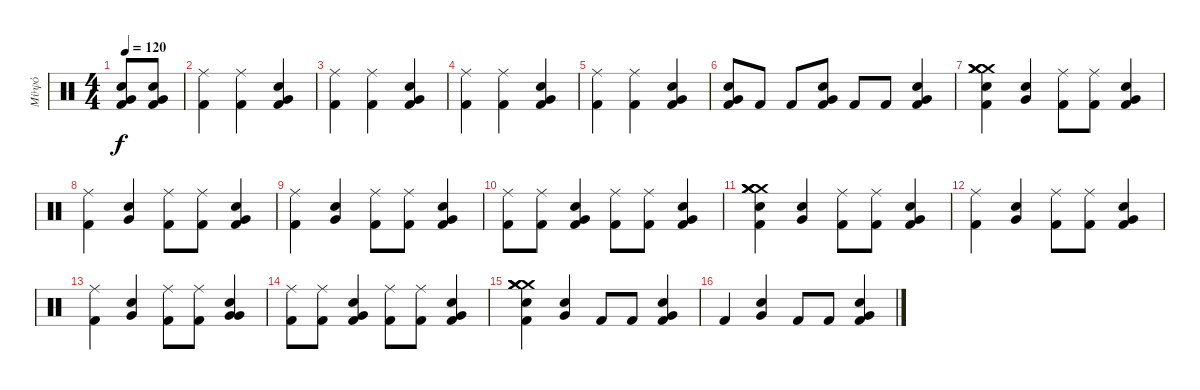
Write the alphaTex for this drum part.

\track ("Μϋψό" "Μϋψό") {instrument percussion}
\staff {score}
\articulation defaults
\ts (4 4)
\tempo 120
\clef neutral
\ks c
("Electric Snare (hit)" "Kick (hit) 2" "Very Low Tom (hit)").8{dy f} ("Electric Snare (hit)" "Kick (hit) 2" "Very Low Tom (hit)").8 |
("Kick (hit) 2" "Ride (middle)").4 ("Kick (hit) 2" "Ride (middle)").4 ("Electric Snare (hit)" "Kick (hit) 2" "Very Low Tom (hit)").4 |
("Kick (hit) 2" "Ride (middle)").4 ("Kick (hit) 2" "Ride (middle)").4 ("Electric Snare (hit)" "Kick (hit) 2" "Very Low Tom (hit)").4 |
("Kick (hit) 2" "Ride (middle)").4 ("Kick (hit) 2" "Ride (middle)").4 ("Electric Snare (hit)" "Kick (hit) 2" "Very Low Tom (hit)").4 |
("Kick (hit) 2" "Ride (middle)").4 ("Kick (hit) 2" "Ride (middle)").4 ("Electric Snare (hit)" "Kick (hit) 2" "Very Low Tom (hit)").4 |
("Kick (hit) 2" "Electric Snare (hit)" "Very Low Tom (hit)").8 "Kick (hit) 2".8 "Kick (hit) 2".8 ("Kick (hit) 2" "Electric Snare (hit)" "Very Low Tom (hit)").8 "Kick (hit) 2".8 "Kick (hit) 2".8 ("Kick (hit) 2" "Electric Snare (hit)" "Very Low Tom (hit)").4 |
("Kick (hit) 2" "Electric Snare (hit)" "Crash medium (hit)" "Crash medium (hit)" "Crash medium (hit)" "Crash medium (hit)").4 ("Electric Snare (hit)" "Very Low Tom (hit)").4 ("Kick (hit) 2" "Ride (middle)").8 ("Kick (hit) 2" "Ride (middle)").8 ("Electric Snare (hit)" "Kick (hit) 2" "Very Low Tom (hit)").4 |
("Kick (hit) 2" "Ride (middle)").4 ("Electric Snare (hit)" "Very Low Tom (hit)").4 ("Kick (hit) 2" "Ride (middle)").8 ("Kick (hit) 2" "Ride (middle)").8 ("Electric Snare (hit)" "Kick (hit) 2" "Very Low Tom (hit)").4 |
("Kick (hit) 2" "Ride (middle)").4 ("Electric Snare (hit)" "Very Low Tom (hit)").4 ("Kick (hit) 2" "Ride (middle)").8 ("Kick (hit) 2" "Ride (middle)").8 ("Electric Snare (hit)" "Kick (hit) 2" "Very Low Tom (hit)").4 |
("Kick (hit) 2" "Ride (middle)").8 ("Kick (hit) 2" "Ride (middle)").8 ("Electric Snare (hit)" "Kick (hit) 2" "Very Low Tom (hit)").4 ("Kick (hit) 2" "Ride (middle)").8 ("Kick (hit) 2" "Ride (middle)").8 ("Electric Snare (hit)" "Kick (hit) 2" "Very Low Tom (hit)").4 |
("Kick (hit) 2" "Electric Snare (hit)" "Crash medium (hit)" "Crash medium (hit)" "Crash medium (hit)" "Crash medium (hit)").4 ("Electric Snare (hit)" "Very Low Tom (hit)").4 ("Kick (hit) 2" "Ride (middle)").8 ("Kick (hit) 2" "Ride (middle)").8 ("Electric Snare (hit)" "Kick (hit) 2" "Very Low Tom (hit)").4 |
("Kick (hit) 2" "Ride (middle)").4 ("Electric Snare (hit)" "Very Low Tom (hit)").4 ("Kick (hit) 2" "Ride (middle)").8 ("Kick (hit) 2" "Ride (middle)").8 ("Electric Snare (hit)" "Kick (hit) 2" "Very Low Tom (hit)").4 |
("Kick (hit) 2" "Ride (middle)").4 ("Electric Snare (hit)" "Very Low Tom (hit)").4 ("Kick (hit) 2" "Ride (middle)").8 ("Kick (hit) 2" "Ride (middle)").8 ("Electric Snare (hit)" "Very Low Tom (hit)" "Very Low Tom (hit)").4 |
("Kick (hit) 2" "Ride (middle)").8 ("Kick (hit) 2" "Ride (middle)").8 ("Electric Snare (hit)" "Kick (hit) 2" "Very Low Tom (hit)").4 ("Kick (hit) 2" "Ride (middle)").8 ("Kick (hit) 2" "Ride (middle)").8 ("Electric Snare (hit)" "Kick (hit) 2" "Very Low Tom (hit)").4 |
("Kick (hit) 2" "Electric Snare (hit)" "Crash medium (hit)" "Crash medium (hit)" "Crash medium (hit)" "Crash medium (hit)").4 ("Electric Snare (hit)" "Very Low Tom (hit)").4 "Kick (hit) 2".8 "Kick (hit) 2".8 ("Electric Snare (hit)" "Kick (hit) 2" "Very Low Tom (hit)").4 |
"Kick (hit) 2".4 ("Electric Snare (hit)" "Very Low Tom (hit)").4 "Kick (hit) 2".8 "Kick (hit) 2".8 ("Electric Snare (hit)" "Kick (hit) 2" "Very Low Tom (hit)").4
